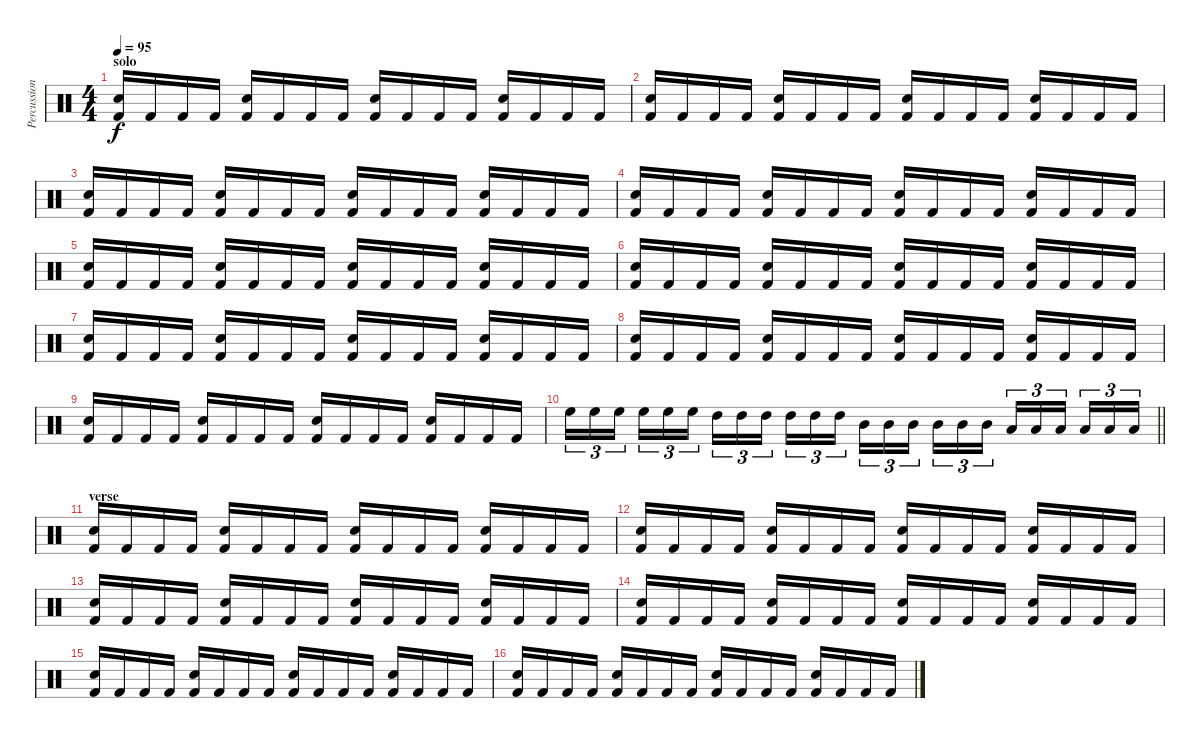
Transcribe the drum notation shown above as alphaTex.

\track ("Percussioni" "Percussion") {instrument percussion}
\staff {score}
\articulation defaults
\ts (4 4)
\section ("" "solo")
\tempo 95
\clef neutral
\ks c
("Snare (hit) 2" "Kick (hit) 2").16{dy f} "Kick (hit) 2".16 "Kick (hit) 2".16 "Kick (hit) 2".16 ("Snare (hit) 2" "Kick (hit) 2").16 "Kick (hit) 2".16 "Kick (hit) 2".16 "Kick (hit) 2".16 ("Snare (hit) 2" "Kick (hit) 2").16 "Kick (hit) 2".16 "Kick (hit) 2".16 "Kick (hit) 2".16 ("Snare (hit) 2" "Kick (hit) 2").16 "Kick (hit) 2".16 "Kick (hit) 2".16 "Kick (hit) 2".16 |
("Snare (hit) 2" "Kick (hit) 2").16 "Kick (hit) 2".16 "Kick (hit) 2".16 "Kick (hit) 2".16 ("Snare (hit) 2" "Kick (hit) 2").16 "Kick (hit) 2".16 "Kick (hit) 2".16 "Kick (hit) 2".16 ("Snare (hit) 2" "Kick (hit) 2").16 "Kick (hit) 2".16 "Kick (hit) 2".16 "Kick (hit) 2".16 ("Snare (hit) 2" "Kick (hit) 2").16 "Kick (hit) 2".16 "Kick (hit) 2".16 "Kick (hit) 2".16 |
("Snare (hit) 2" "Kick (hit) 2").16 "Kick (hit) 2".16 "Kick (hit) 2".16 "Kick (hit) 2".16 ("Snare (hit) 2" "Kick (hit) 2").16 "Kick (hit) 2".16 "Kick (hit) 2".16 "Kick (hit) 2".16 ("Snare (hit) 2" "Kick (hit) 2").16 "Kick (hit) 2".16 "Kick (hit) 2".16 "Kick (hit) 2".16 ("Snare (hit) 2" "Kick (hit) 2").16 "Kick (hit) 2".16 "Kick (hit) 2".16 "Kick (hit) 2".16 |
("Snare (hit) 2" "Kick (hit) 2").16 "Kick (hit) 2".16 "Kick (hit) 2".16 "Kick (hit) 2".16 ("Snare (hit) 2" "Kick (hit) 2").16 "Kick (hit) 2".16 "Kick (hit) 2".16 "Kick (hit) 2".16 ("Snare (hit) 2" "Kick (hit) 2").16 "Kick (hit) 2".16 "Kick (hit) 2".16 "Kick (hit) 2".16 ("Snare (hit) 2" "Kick (hit) 2").16 "Kick (hit) 2".16 "Kick (hit) 2".16 "Kick (hit) 2".16 |
("Snare (hit) 2" "Kick (hit) 2").16 "Kick (hit) 2".16 "Kick (hit) 2".16 "Kick (hit) 2".16 ("Snare (hit) 2" "Kick (hit) 2").16 "Kick (hit) 2".16 "Kick (hit) 2".16 "Kick (hit) 2".16 ("Snare (hit) 2" "Kick (hit) 2").16 "Kick (hit) 2".16 "Kick (hit) 2".16 "Kick (hit) 2".16 ("Snare (hit) 2" "Kick (hit) 2").16 "Kick (hit) 2".16 "Kick (hit) 2".16 "Kick (hit) 2".16 |
("Snare (hit) 2" "Kick (hit) 2").16 "Kick (hit) 2".16 "Kick (hit) 2".16 "Kick (hit) 2".16 ("Snare (hit) 2" "Kick (hit) 2").16 "Kick (hit) 2".16 "Kick (hit) 2".16 "Kick (hit) 2".16 ("Snare (hit) 2" "Kick (hit) 2").16 "Kick (hit) 2".16 "Kick (hit) 2".16 "Kick (hit) 2".16 ("Snare (hit) 2" "Kick (hit) 2").16 "Kick (hit) 2".16 "Kick (hit) 2".16 "Kick (hit) 2".16 |
("Snare (hit) 2" "Kick (hit) 2").16 "Kick (hit) 2".16 "Kick (hit) 2".16 "Kick (hit) 2".16 ("Snare (hit) 2" "Kick (hit) 2").16 "Kick (hit) 2".16 "Kick (hit) 2".16 "Kick (hit) 2".16 ("Snare (hit) 2" "Kick (hit) 2").16 "Kick (hit) 2".16 "Kick (hit) 2".16 "Kick (hit) 2".16 ("Snare (hit) 2" "Kick (hit) 2").16 "Kick (hit) 2".16 "Kick (hit) 2".16 "Kick (hit) 2".16 |
("Snare (hit) 2" "Kick (hit) 2").16 "Kick (hit) 2".16 "Kick (hit) 2".16 "Kick (hit) 2".16 ("Snare (hit) 2" "Kick (hit) 2").16 "Kick (hit) 2".16 "Kick (hit) 2".16 "Kick (hit) 2".16 ("Snare (hit) 2" "Kick (hit) 2").16 "Kick (hit) 2".16 "Kick (hit) 2".16 "Kick (hit) 2".16 ("Snare (hit) 2" "Kick (hit) 2").16 "Kick (hit) 2".16 "Kick (hit) 2".16 "Kick (hit) 2".16 |
("Snare (hit) 2" "Kick (hit) 2").16 "Kick (hit) 2".16 "Kick (hit) 2".16 "Kick (hit) 2".16 ("Snare (hit) 2" "Kick (hit) 2").16 "Kick (hit) 2".16 "Kick (hit) 2".16 "Kick (hit) 2".16 ("Snare (hit) 2" "Kick (hit) 2").16 "Kick (hit) 2".16 "Kick (hit) 2".16 "Kick (hit) 2".16 ("Snare (hit) 2" "Kick (hit) 2").16 "Kick (hit) 2".16 "Kick (hit) 2".16 "Kick (hit) 2".16 |
\barLineRight lightlight "High Floor Tom (hit)".16{tu (3 2)} "High Floor Tom (hit)".16{tu (3 2)} "High Floor Tom (hit)".16{tu (3 2) beam splitsecondary} "High Floor Tom (hit)".16{tu (3 2)} "High Floor Tom (hit)".16{tu (3 2)} "High Floor Tom (hit)".16{tu (3 2)} "High Tom (hit)".16{tu (3 2)} "High Tom (hit)".16{tu (3 2)} "High Tom (hit)".16{tu (3 2) beam splitsecondary} "High Tom (hit)".16{tu (3 2)} "High Tom (hit)".16{tu (3 2)} "High Tom (hit)".16{tu (3 2)} "Mid Tom (hit)".16{tu (3 2)} "Mid Tom (hit)".16{tu (3 2)} "Mid Tom (hit)".16{tu (3 2) beam splitsecondary} "Mid Tom (hit)".16{tu (3 2)} "Mid Tom (hit)".16{tu (3 2)} "Mid Tom (hit)".16{tu (3 2)} "Low Tom (hit)".16{tu (3 2)} "Low Tom (hit)".16{tu (3 2)} "Low Tom (hit)".16{tu (3 2) beam splitsecondary} "Low Tom (hit)".16{tu (3 2)} "Low Tom (hit)".16{tu (3 2)} "Low Tom (hit)".16{tu (3 2)}
|
\section ("" "verse")
("Snare (hit) 2" "Kick (hit) 2").16 "Kick (hit) 2".16 "Kick (hit) 2".16 "Kick (hit) 2".16 ("Snare (hit) 2" "Kick (hit) 2").16 "Kick (hit) 2".16 "Kick (hit) 2".16 "Kick (hit) 2".16 ("Snare (hit) 2" "Kick (hit) 2").16 "Kick (hit) 2".16 "Kick (hit) 2".16 "Kick (hit) 2".16 ("Snare (hit) 2" "Kick (hit) 2").16 "Kick (hit) 2".16 "Kick (hit) 2".16 "Kick (hit) 2".16 |
("Snare (hit) 2" "Kick (hit) 2").16 "Kick (hit) 2".16 "Kick (hit) 2".16 "Kick (hit) 2".16 ("Snare (hit) 2" "Kick (hit) 2").16 "Kick (hit) 2".16 "Kick (hit) 2".16 "Kick (hit) 2".16 ("Snare (hit) 2" "Kick (hit) 2").16 "Kick (hit) 2".16 "Kick (hit) 2".16 "Kick (hit) 2".16 ("Snare (hit) 2" "Kick (hit) 2").16 "Kick (hit) 2".16 "Kick (hit) 2".16 "Kick (hit) 2".16 |
("Snare (hit) 2" "Kick (hit) 2").16 "Kick (hit) 2".16 "Kick (hit) 2".16 "Kick (hit) 2".16 ("Snare (hit) 2" "Kick (hit) 2").16 "Kick (hit) 2".16 "Kick (hit) 2".16 "Kick (hit) 2".16 ("Snare (hit) 2" "Kick (hit) 2").16 "Kick (hit) 2".16 "Kick (hit) 2".16 "Kick (hit) 2".16 ("Snare (hit) 2" "Kick (hit) 2").16 "Kick (hit) 2".16 "Kick (hit) 2".16 "Kick (hit) 2".16 |
("Snare (hit) 2" "Kick (hit) 2").16 "Kick (hit) 2".16 "Kick (hit) 2".16 "Kick (hit) 2".16 ("Snare (hit) 2" "Kick (hit) 2").16 "Kick (hit) 2".16 "Kick (hit) 2".16 "Kick (hit) 2".16 ("Snare (hit) 2" "Kick (hit) 2").16 "Kick (hit) 2".16 "Kick (hit) 2".16 "Kick (hit) 2".16 ("Snare (hit) 2" "Kick (hit) 2").16 "Kick (hit) 2".16 "Kick (hit) 2".16 "Kick (hit) 2".16 |
("Snare (hit) 2" "Kick (hit) 2").16 "Kick (hit) 2".16 "Kick (hit) 2".16 "Kick (hit) 2".16 ("Snare (hit) 2" "Kick (hit) 2").16 "Kick (hit) 2".16 "Kick (hit) 2".16 "Kick (hit) 2".16 ("Snare (hit) 2" "Kick (hit) 2").16 "Kick (hit) 2".16 "Kick (hit) 2".16 "Kick (hit) 2".16 ("Snare (hit) 2" "Kick (hit) 2").16 "Kick (hit) 2".16 "Kick (hit) 2".16 "Kick (hit) 2".16 |
("Snare (hit) 2" "Kick (hit) 2").16 "Kick (hit) 2".16 "Kick (hit) 2".16 "Kick (hit) 2".16 ("Snare (hit) 2" "Kick (hit) 2").16 "Kick (hit) 2".16 "Kick (hit) 2".16 "Kick (hit) 2".16 ("Snare (hit) 2" "Kick (hit) 2").16 "Kick (hit) 2".16 "Kick (hit) 2".16 "Kick (hit) 2".16 ("Snare (hit) 2" "Kick (hit) 2").16 "Kick (hit) 2".16 "Kick (hit) 2".16 "Kick (hit) 2".16
